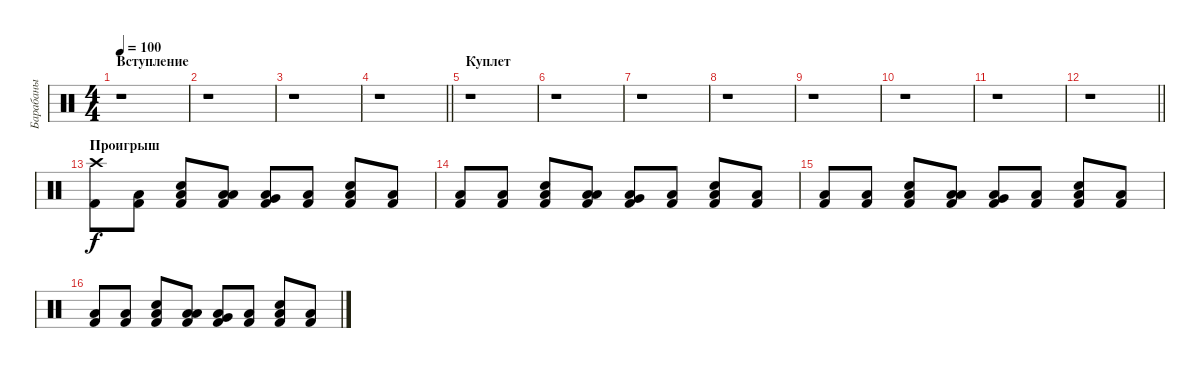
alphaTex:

\track ("Барабаны" "Барабаны") {instrument percussion}
\staff {score}
\articulation defaults
\ts (4 4)
\section ("" "Вступление")
\tempo 100
\clef neutral
\ks c
r.1{dy f} |
r.1 |
r.1 |
\barLineRight lightlight
r.1 |
\section ("" "Куплет")
r.1 |
r.1 |
r.1 |
r.1 |
r.1 |
r.1 |
r.1 |
\barLineRight lightlight
r.1 |
\section ("" "Проигрыш")
("Crash high (hit)" "Kick (hit) 2").8 ("Low Floor Tom (hit)" "Kick (hit) 2").8 ("Electric Snare (hit)" "Low Floor Tom (hit)" "Kick (hit) 2").8 ("Low Tom (hit)" "Low Floor Tom (hit)" "Kick (hit) 2").8 ("Very Low Tom (hit)" "Low Floor Tom (hit)" "Kick (hit) 2").8 ("Low Floor Tom (hit)" "Kick (hit) 2").8 ("Electric Snare (hit)" "Low Floor Tom (hit)" "Kick (hit) 2").8 ("Low Floor Tom (hit)" "Kick (hit) 2").8 |
("Low Floor Tom (hit)" "Kick (hit) 2").8 ("Low Floor Tom (hit)" "Kick (hit) 2").8 ("Electric Snare (hit)" "Low Floor Tom (hit)" "Kick (hit) 2").8 ("Low Tom (hit)" "Low Floor Tom (hit)" "Kick (hit) 2").8 ("Very Low Tom (hit)" "Low Floor Tom (hit)" "Kick (hit) 2").8 ("Low Floor Tom (hit)" "Kick (hit) 2").8 ("Electric Snare (hit)" "Low Floor Tom (hit)" "Kick (hit) 2").8 ("Low Floor Tom (hit)" "Kick (hit) 2").8 |
("Low Floor Tom (hit)" "Kick (hit) 2").8 ("Low Floor Tom (hit)" "Kick (hit) 2").8 ("Electric Snare (hit)" "Low Floor Tom (hit)" "Kick (hit) 2").8 ("Low Tom (hit)" "Low Floor Tom (hit)" "Kick (hit) 2").8 ("Very Low Tom (hit)" "Low Floor Tom (hit)" "Kick (hit) 2").8 ("Low Floor Tom (hit)" "Kick (hit) 2").8 ("Electric Snare (hit)" "Low Floor Tom (hit)" "Kick (hit) 2").8 ("Low Floor Tom (hit)" "Kick (hit) 2").8 |
("Low Floor Tom (hit)" "Kick (hit) 2").8 ("Low Floor Tom (hit)" "Kick (hit) 2").8 ("Electric Snare (hit)" "Low Floor Tom (hit)" "Kick (hit) 2").8 ("Low Tom (hit)" "Low Floor Tom (hit)" "Kick (hit) 2").8 ("Very Low Tom (hit)" "Low Floor Tom (hit)" "Kick (hit) 2").8 ("Low Floor Tom (hit)" "Kick (hit) 2").8 ("Electric Snare (hit)" "Low Floor Tom (hit)" "Kick (hit) 2").8 ("Low Floor Tom (hit)" "Kick (hit) 2").8
